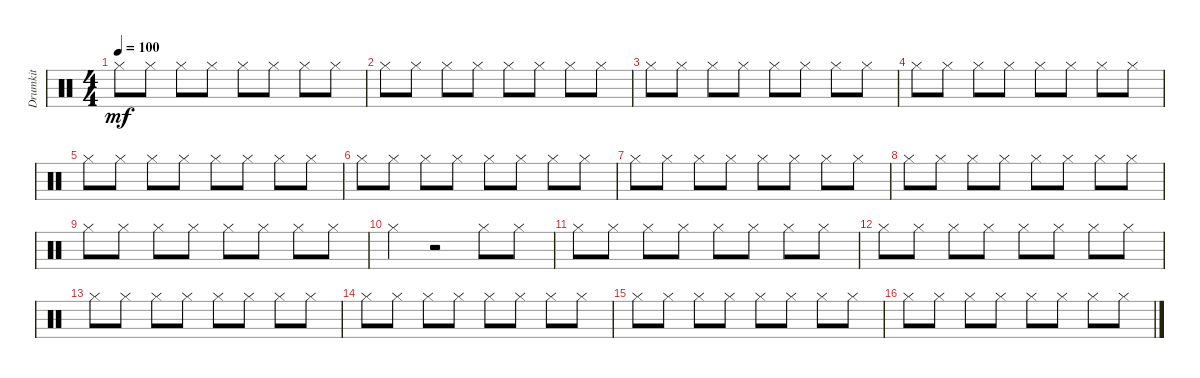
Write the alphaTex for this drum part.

\track ("Drumkit" "Drumkit") {instrument percussion}
\staff {score}
\articulation defaults
\ts (4 4)
\tempo 100
\clef neutral
\ks aminor "Hi-Hat (closed)".8{dy mf} "Hi-Hat (closed)".8 "Hi-Hat (closed)".8 "Hi-Hat (closed)".8 "Hi-Hat (closed)".8 "Hi-Hat (closed)".8 "Hi-Hat (closed)".8 "Hi-Hat (closed)".8
|
"Hi-Hat (closed)".8 "Hi-Hat (closed)".8 "Hi-Hat (closed)".8 "Hi-Hat (closed)".8 "Hi-Hat (closed)".8 "Hi-Hat (closed)".8 "Hi-Hat (closed)".8 "Hi-Hat (closed)".8 |
"Hi-Hat (closed)".8 "Hi-Hat (closed)".8 "Hi-Hat (closed)".8 "Hi-Hat (closed)".8 "Hi-Hat (closed)".8 "Hi-Hat (closed)".8 "Hi-Hat (closed)".8 "Hi-Hat (closed)".8 |
"Hi-Hat (closed)".8 "Hi-Hat (closed)".8 "Hi-Hat (closed)".8 "Hi-Hat (closed)".8 "Hi-Hat (closed)".8 "Hi-Hat (closed)".8 "Hi-Hat (closed)".8 "Hi-Hat (closed)".8 |
"Hi-Hat (closed)".8 "Hi-Hat (closed)".8 "Hi-Hat (closed)".8 "Hi-Hat (closed)".8 "Hi-Hat (closed)".8 "Hi-Hat (closed)".8 "Hi-Hat (closed)".8 "Hi-Hat (closed)".8 |
"Hi-Hat (closed)".8 "Hi-Hat (closed)".8 "Hi-Hat (closed)".8 "Hi-Hat (closed)".8 "Hi-Hat (closed)".8 "Hi-Hat (closed)".8 "Hi-Hat (closed)".8 "Hi-Hat (closed)".8 |
"Hi-Hat (closed)".8 "Hi-Hat (closed)".8 "Hi-Hat (closed)".8 "Hi-Hat (closed)".8 "Hi-Hat (closed)".8 "Hi-Hat (closed)".8 "Hi-Hat (closed)".8 "Hi-Hat (closed)".8 |
"Hi-Hat (closed)".8 "Hi-Hat (closed)".8 "Hi-Hat (closed)".8 "Hi-Hat (closed)".8 "Hi-Hat (closed)".8 "Hi-Hat (closed)".8 "Hi-Hat (closed)".8 "Hi-Hat (closed)".8 |
"Hi-Hat (closed)".8 "Hi-Hat (closed)".8 "Hi-Hat (closed)".8 "Hi-Hat (closed)".8 "Hi-Hat (closed)".8 "Hi-Hat (closed)".8 "Hi-Hat (closed)".8 "Hi-Hat (closed)".8 |
"Hi-Hat (closed)".4 r.2 "Hi-Hat (closed)".8 "Hi-Hat (closed)".8 |
"Hi-Hat (closed)".8 "Hi-Hat (closed)".8 "Hi-Hat (closed)".8 "Hi-Hat (closed)".8 "Hi-Hat (closed)".8 "Hi-Hat (closed)".8 "Hi-Hat (closed)".8 "Hi-Hat (closed)".8 |
"Hi-Hat (closed)".8 "Hi-Hat (closed)".8 "Hi-Hat (closed)".8 "Hi-Hat (closed)".8 "Hi-Hat (closed)".8 "Hi-Hat (closed)".8 "Hi-Hat (closed)".8 "Hi-Hat (closed)".8 |
"Hi-Hat (closed)".8 "Hi-Hat (closed)".8 "Hi-Hat (closed)".8 "Hi-Hat (closed)".8 "Hi-Hat (closed)".8 "Hi-Hat (closed)".8 "Hi-Hat (closed)".8 "Hi-Hat (closed)".8 |
"Hi-Hat (closed)".8 "Hi-Hat (closed)".8 "Hi-Hat (closed)".8 "Hi-Hat (closed)".8 "Hi-Hat (closed)".8 "Hi-Hat (closed)".8 "Hi-Hat (closed)".8 "Hi-Hat (closed)".8 |
"Hi-Hat (closed)".8 "Hi-Hat (closed)".8 "Hi-Hat (closed)".8 "Hi-Hat (closed)".8 "Hi-Hat (closed)".8 "Hi-Hat (closed)".8 "Hi-Hat (closed)".8 "Hi-Hat (closed)".8 |
"Hi-Hat (closed)".8 "Hi-Hat (closed)".8 "Hi-Hat (closed)".8 "Hi-Hat (closed)".8 "Hi-Hat (closed)".8 "Hi-Hat (closed)".8 "Hi-Hat (closed)".8 "Hi-Hat (closed)".8
